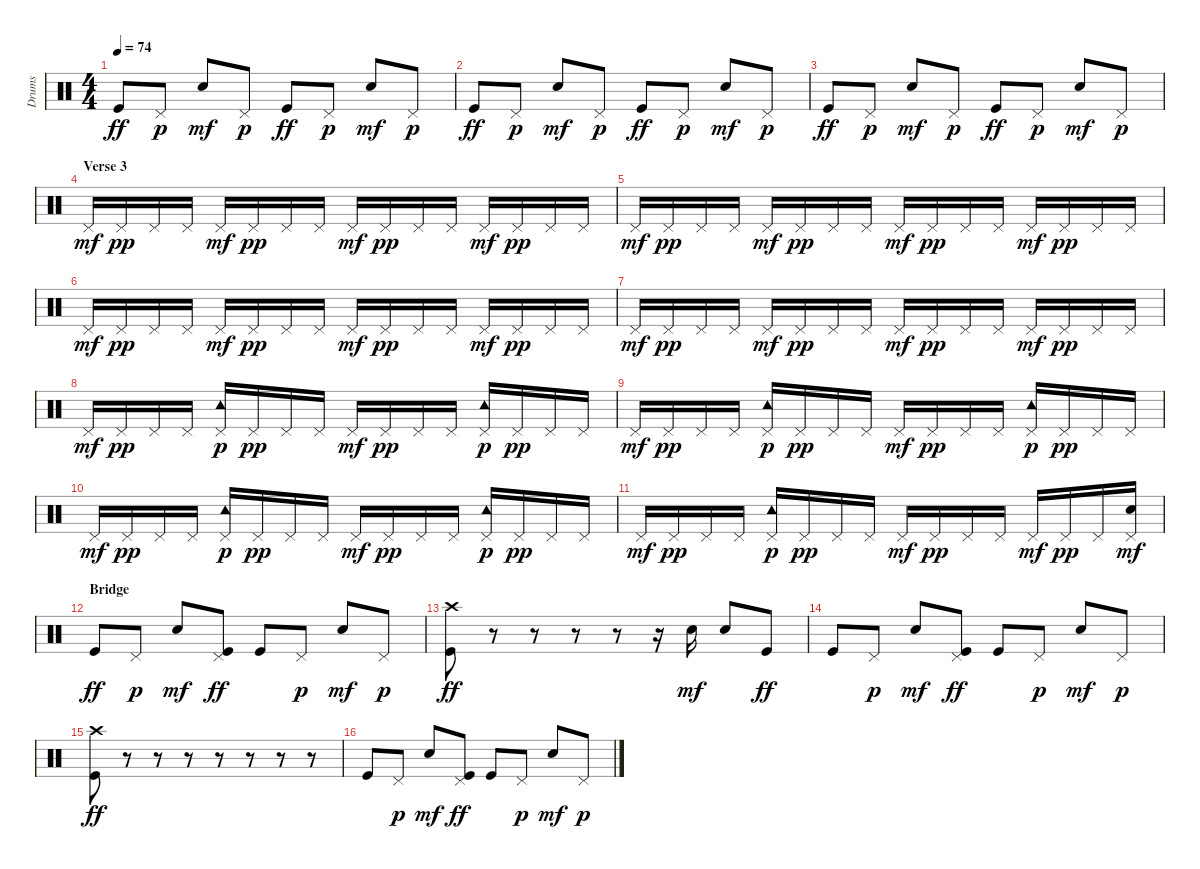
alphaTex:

\track ("Drums" "Drums") {instrument percussion}
\staff {score}
\articulation defaults
\ts (4 4)
\tempo 74
\clef neutral
\ks c "Kick (hit)".8{dy ff} "Pedal Hi-Hat (hit)".8{dy p} "Electric Snare (hit)".8{dy mf} "Pedal Hi-Hat (hit)".8{dy p} "Kick (hit)".8{dy ff} "Pedal Hi-Hat (hit)".8{dy p} "Electric Snare (hit)".8{dy mf} "Pedal Hi-Hat (hit)".8{dy p}
|
"Kick (hit)".8{dy ff} "Pedal Hi-Hat (hit)".8{dy p} "Electric Snare (hit)".8{dy mf} "Pedal Hi-Hat (hit)".8{dy p} "Kick (hit)".8{dy ff} "Pedal Hi-Hat (hit)".8{dy p} "Electric Snare (hit)".8{dy mf} "Pedal Hi-Hat (hit)".8{dy p} |
"Kick (hit)".8{dy ff} "Pedal Hi-Hat (hit)".8{dy p} "Electric Snare (hit)".8{dy mf} "Pedal Hi-Hat (hit)".8{dy p} "Kick (hit)".8{dy ff} "Pedal Hi-Hat (hit)".8{dy p} "Electric Snare (hit)".8{dy mf} "Pedal Hi-Hat (hit)".8{dy p} |
\section ("" "Verse 3")
"Pedal Hi-Hat (hit)".16{dy mf} "Pedal Hi-Hat (hit)".16{dy pp} "Pedal Hi-Hat (hit)".16 "Pedal Hi-Hat (hit)".16 "Pedal Hi-Hat (hit)".16{dy mf} "Pedal Hi-Hat (hit)".16{dy pp} "Pedal Hi-Hat (hit)".16 "Pedal Hi-Hat (hit)".16 "Pedal Hi-Hat (hit)".16{dy mf} "Pedal Hi-Hat (hit)".16{dy pp} "Pedal Hi-Hat (hit)".16 "Pedal Hi-Hat (hit)".16 "Pedal Hi-Hat (hit)".16{dy mf} "Pedal Hi-Hat (hit)".16{dy pp} "Pedal Hi-Hat (hit)".16 "Pedal Hi-Hat (hit)".16 |
"Pedal Hi-Hat (hit)".16{dy mf} "Pedal Hi-Hat (hit)".16{dy pp} "Pedal Hi-Hat (hit)".16 "Pedal Hi-Hat (hit)".16 "Pedal Hi-Hat (hit)".16{dy mf} "Pedal Hi-Hat (hit)".16{dy pp} "Pedal Hi-Hat (hit)".16 "Pedal Hi-Hat (hit)".16 "Pedal Hi-Hat (hit)".16{dy mf} "Pedal Hi-Hat (hit)".16{dy pp} "Pedal Hi-Hat (hit)".16 "Pedal Hi-Hat (hit)".16 "Pedal Hi-Hat (hit)".16{dy mf} "Pedal Hi-Hat (hit)".16{dy pp} "Pedal Hi-Hat (hit)".16 "Pedal Hi-Hat (hit)".16 |
"Pedal Hi-Hat (hit)".16{dy mf} "Pedal Hi-Hat (hit)".16{dy pp} "Pedal Hi-Hat (hit)".16 "Pedal Hi-Hat (hit)".16 "Pedal Hi-Hat (hit)".16{dy mf} "Pedal Hi-Hat (hit)".16{dy pp} "Pedal Hi-Hat (hit)".16 "Pedal Hi-Hat (hit)".16 "Pedal Hi-Hat (hit)".16{dy mf} "Pedal Hi-Hat (hit)".16{dy pp} "Pedal Hi-Hat (hit)".16 "Pedal Hi-Hat (hit)".16 "Pedal Hi-Hat (hit)".16{dy mf} "Pedal Hi-Hat (hit)".16{dy pp} "Pedal Hi-Hat (hit)".16 "Pedal Hi-Hat (hit)".16 |
"Pedal Hi-Hat (hit)".16{dy mf} "Pedal Hi-Hat (hit)".16{dy pp} "Pedal Hi-Hat (hit)".16 "Pedal Hi-Hat (hit)".16 "Pedal Hi-Hat (hit)".16{dy mf} "Pedal Hi-Hat (hit)".16{dy pp} "Pedal Hi-Hat (hit)".16 "Pedal Hi-Hat (hit)".16 "Pedal Hi-Hat (hit)".16{dy mf} "Pedal Hi-Hat (hit)".16{dy pp} "Pedal Hi-Hat (hit)".16 "Pedal Hi-Hat (hit)".16 "Pedal Hi-Hat (hit)".16{dy mf} "Pedal Hi-Hat (hit)".16{dy pp} "Pedal Hi-Hat (hit)".16 "Pedal Hi-Hat (hit)".16 |
"Pedal Hi-Hat (hit)".16{dy mf} "Pedal Hi-Hat (hit)".16{dy pp} "Pedal Hi-Hat (hit)".16 "Pedal Hi-Hat (hit)".16 ("Pedal Hi-Hat (hit)" "Tambourine (hit)").16{dy p} "Pedal Hi-Hat (hit)".16{dy pp} "Pedal Hi-Hat (hit)".16 "Pedal Hi-Hat (hit)".16 "Pedal Hi-Hat (hit)".16{dy mf} "Pedal Hi-Hat (hit)".16{dy pp} "Pedal Hi-Hat (hit)".16 "Pedal Hi-Hat (hit)".16 ("Pedal Hi-Hat (hit)" "Tambourine (hit)").16{dy p} "Pedal Hi-Hat (hit)".16{dy pp} "Pedal Hi-Hat (hit)".16 "Pedal Hi-Hat (hit)".16 |
"Pedal Hi-Hat (hit)".16{dy mf} "Pedal Hi-Hat (hit)".16{dy pp} "Pedal Hi-Hat (hit)".16 "Pedal Hi-Hat (hit)".16 ("Pedal Hi-Hat (hit)" "Tambourine (hit)").16{dy p} "Pedal Hi-Hat (hit)".16{dy pp} "Pedal Hi-Hat (hit)".16 "Pedal Hi-Hat (hit)".16 "Pedal Hi-Hat (hit)".16{dy mf} "Pedal Hi-Hat (hit)".16{dy pp} "Pedal Hi-Hat (hit)".16 "Pedal Hi-Hat (hit)".16 ("Pedal Hi-Hat (hit)" "Tambourine (hit)").16{dy p} "Pedal Hi-Hat (hit)".16{dy pp} "Pedal Hi-Hat (hit)".16 "Pedal Hi-Hat (hit)".16 |
"Pedal Hi-Hat (hit)".16{dy mf} "Pedal Hi-Hat (hit)".16{dy pp} "Pedal Hi-Hat (hit)".16 "Pedal Hi-Hat (hit)".16 ("Pedal Hi-Hat (hit)" "Tambourine (hit)").16{dy p} "Pedal Hi-Hat (hit)".16{dy pp} "Pedal Hi-Hat (hit)".16 "Pedal Hi-Hat (hit)".16 "Pedal Hi-Hat (hit)".16{dy mf} "Pedal Hi-Hat (hit)".16{dy pp} "Pedal Hi-Hat (hit)".16 "Pedal Hi-Hat (hit)".16 ("Pedal Hi-Hat (hit)" "Tambourine (hit)").16{dy p} "Pedal Hi-Hat (hit)".16{dy pp} "Pedal Hi-Hat (hit)".16 "Pedal Hi-Hat (hit)".16 |
"Pedal Hi-Hat (hit)".16{dy mf} "Pedal Hi-Hat (hit)".16{dy pp} "Pedal Hi-Hat (hit)".16 "Pedal Hi-Hat (hit)".16 ("Pedal Hi-Hat (hit)" "Tambourine (hit)").16{dy p} "Pedal Hi-Hat (hit)".16{dy pp} "Pedal Hi-Hat (hit)".16 "Pedal Hi-Hat (hit)".16 "Pedal Hi-Hat (hit)".16{dy mf} "Pedal Hi-Hat (hit)".16{dy pp} "Pedal Hi-Hat (hit)".16 "Pedal Hi-Hat (hit)".16 "Pedal Hi-Hat (hit)".16{dy mf} "Pedal Hi-Hat (hit)".16{dy pp} "Pedal Hi-Hat (hit)".16 ("Pedal Hi-Hat (hit)" "Electric Snare (hit)").16{dy mf} |
\section ("" "Bridge")
"Kick (hit)".8{dy ff} "Pedal Hi-Hat (hit)".8{dy p} "Electric Snare (hit)".8{dy mf} ("Pedal Hi-Hat (hit)" "Kick (hit)").8{dy ff} "Kick (hit)".8 "Pedal Hi-Hat (hit)".8{dy p} "Electric Snare (hit)".8{dy mf} "Pedal Hi-Hat (hit)".8{dy p} |
("Crash high (hit)" "Kick (hit)").8{dy ff} r.8 r.8 r.8 r.8 r.16 "Electric Snare (hit)".16{dy mf} "Electric Snare (hit)".8 "Kick (hit)".8{dy ff} |
"Kick (hit)".8 "Pedal Hi-Hat (hit)".8{dy p} "Electric Snare (hit)".8{dy mf} ("Pedal Hi-Hat (hit)" "Kick (hit)").8{dy ff} "Kick (hit)".8 "Pedal Hi-Hat (hit)".8{dy p} "Electric Snare (hit)".8{dy mf} "Pedal Hi-Hat (hit)".8{dy p} |
("Crash high (hit)" "Kick (hit)").8{dy ff} r.8 r.8 r.8 r.8 r.8 r.8 r.8 |
"Kick (hit)".8 "Pedal Hi-Hat (hit)".8{dy p} "Electric Snare (hit)".8{dy mf} ("Pedal Hi-Hat (hit)" "Kick (hit)").8{dy ff} "Kick (hit)".8 "Pedal Hi-Hat (hit)".8{dy p} "Electric Snare (hit)".8{dy mf} "Pedal Hi-Hat (hit)".8{dy p}
